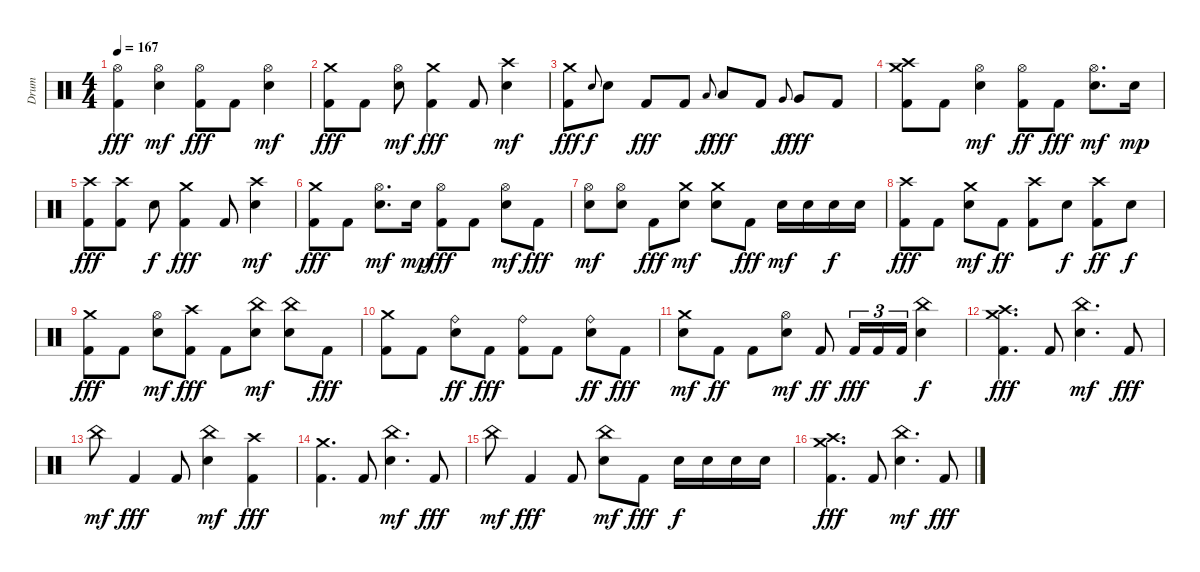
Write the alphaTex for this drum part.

\track ("Drum" "Drum") {instrument percussion}
\staff {score}
\articulation defaults
\ts (4 4)
\tempo 167
\clef neutral
\ks c
("Hi-Hat (open)" "Kick (hit) 2").4{dy fff} ("Hi-Hat (open)" "Electric Snare (hit)").4{dy mf} ("Hi-Hat (open)" "Kick (hit) 2").8{dy fff} "Kick (hit) 2".8 ("Hi-Hat (open)" "Electric Snare (hit)").4{dy mf} |
("Crash medium (hit)" "Kick (hit) 2").8{dy fff} "Kick (hit) 2".8 ("Hi-Hat (open)" "Electric Snare (hit)").8{dy mf} ("Crash medium (hit)" "Kick (hit) 2").4{dy fff} "Kick (hit) 2".8 ("Crash high (hit)" "Electric Snare (hit)").4{dy mf} |
("Crash medium (hit)" "Kick (hit) 2").8{dy fff} "Electric Snare (hit)".8{gr onbeat dy f} "Electric Snare (hit)".8 "Kick (hit) 2".8{dy fff} "Kick (hit) 2".8 "Low Tom (hit)".8{gr onbeat dy f} "Low Tom (hit)".8{dy fff} "Kick (hit) 2".8 "Very Low Tom (hit)".8{gr onbeat dy f} "Very Low Tom (hit)".8{dy fff} "Kick (hit) 2".8 |
("Crash high (hit)" "Crash medium (hit)" "Kick (hit) 2").8 "Kick (hit) 2".8 ("Hi-Hat (open)" "Electric Snare (hit)").4{dy mf} ("Hi-Hat (open)" "Kick (hit) 2").8{dy ff} "Kick (hit) 2".8{dy fff} ("Hi-Hat (open)" "Electric Snare (hit)").8{d dy mf} "Electric Snare (hit)".16{dy mp} |
("Crash high (hit)" "Kick (hit) 2").8{dy fff} ("Crash high (hit)" "Kick (hit) 2").8 "Electric Snare (hit)".8{dy f} ("Crash medium (hit)" "Kick (hit) 2").4{dy fff} "Kick (hit) 2".8 ("Crash high (hit)" "Electric Snare (hit)").4{dy mf} |
("Crash medium (hit)" "Kick (hit) 2").8{dy fff} "Kick (hit) 2".8 ("Hi-Hat (open)" "Electric Snare (hit)").8{d dy mf} "Electric Snare (hit)".16{dy mp} ("Hi-Hat (open)" "Kick (hit) 2").8{dy fff} "Kick (hit) 2".8 ("Hi-Hat (open)" "Electric Snare (hit)").8{dy mf} "Kick (hit) 2".8{dy fff} |
("Hi-Hat (open)" "Electric Snare (hit)").8{dy mf} ("Hi-Hat (open)" "Electric Snare (hit)").8 "Kick (hit) 2".8{dy fff} ("Crash medium (hit)" "Electric Snare (hit)").8{dy mf} ("Crash medium (hit)" "Electric Snare (hit)").8 "Kick (hit) 2".8{dy fff} "Electric Snare (hit)".16{dy mf} "Electric Snare (hit)".16 "Electric Snare (hit)".16{dy f} "Electric Snare (hit)".16 |
("Crash high (hit)" "Kick (hit) 2").8{dy fff} "Kick (hit) 2".8 ("Crash medium (hit)" "Electric Snare (hit)").8{dy mf} "Kick (hit) 2".8{dy ff} ("Crash high (hit)" "Kick (hit) 2").8 "Electric Snare (hit)".8{dy f} ("Crash high (hit)" "Kick (hit) 2").8{dy ff} "Electric Snare (hit)".8{dy f} |
("Crash medium (hit)" "Kick (hit) 2").8{dy fff} "Kick (hit) 2".8 ("Hi-Hat (open)" "Electric Snare (hit)").8{dy mf} ("Crash high (hit)" "Kick (hit) 2").8{dy fff} "Kick (hit) 2".8 ("China (hit)" "Electric Snare (hit)").8{dy mf} ("China (hit)" "Electric Snare (hit)").8 "Kick (hit) 2".8{dy fff} |
("Crash medium (hit)" "Kick (hit) 2").8 "Kick (hit) 2".8 ("Ride (bell)" "Electric Snare (hit)").8{dy ff} "Kick (hit) 2".8{dy fff} ("Ride (bell)" "Kick (hit) 2").8 "Kick (hit) 2".8 ("Ride (bell)" "Electric Snare (hit)").8{dy ff} "Kick (hit) 2".8{dy fff} |
("Crash medium (hit)" "Electric Snare (hit)").8{dy mf} "Kick (hit) 2".8{dy ff} "Kick (hit) 2".8 ("Hi-Hat (open)" "Electric Snare (hit)").8{dy mf} "Kick (hit) 2".8{dy ff} "Kick (hit) 2".16{tu (3 2) dy fff} "Kick (hit) 2".16{tu (3 2)} "Kick (hit) 2".16{tu (3 2)} ("China (hit)" "Electric Snare (hit)").4{dy f} |
("Crash medium (hit)" "Crash high (hit)" "Kick (hit) 2").4{d dy fff} "Kick (hit) 2".8 ("China (hit)" "Electric Snare (hit)").4{d dy mf} "Kick (hit) 2".8{dy fff} |
"China (hit)".8{dy mf} "Kick (hit) 2".4{dy fff} "Kick (hit) 2".8 ("China (hit)" "Electric Snare (hit)").4{dy mf} ("Crash high (hit)" "Kick (hit) 2").4{dy fff} |
("Crash medium (hit)" "Kick (hit) 2").4{d} "Kick (hit) 2".8 ("China (hit)" "Electric Snare (hit)").4{d dy mf} "Kick (hit) 2".8{dy fff} |
"China (hit)".8{dy mf} "Kick (hit) 2".4{dy fff} "Kick (hit) 2".8 ("China (hit)" "Electric Snare (hit)").8{dy mf} "Kick (hit) 2".8{dy fff} "Electric Snare (hit)".16{dy f} "Electric Snare (hit)".16 "Electric Snare (hit)".16 "Electric Snare (hit)".16 |
("Crash medium (hit)" "Crash high (hit)" "Kick (hit) 2").4{d dy fff} "Kick (hit) 2".8 ("China (hit)" "Electric Snare (hit)").4{d dy mf} "Kick (hit) 2".8{dy fff}
